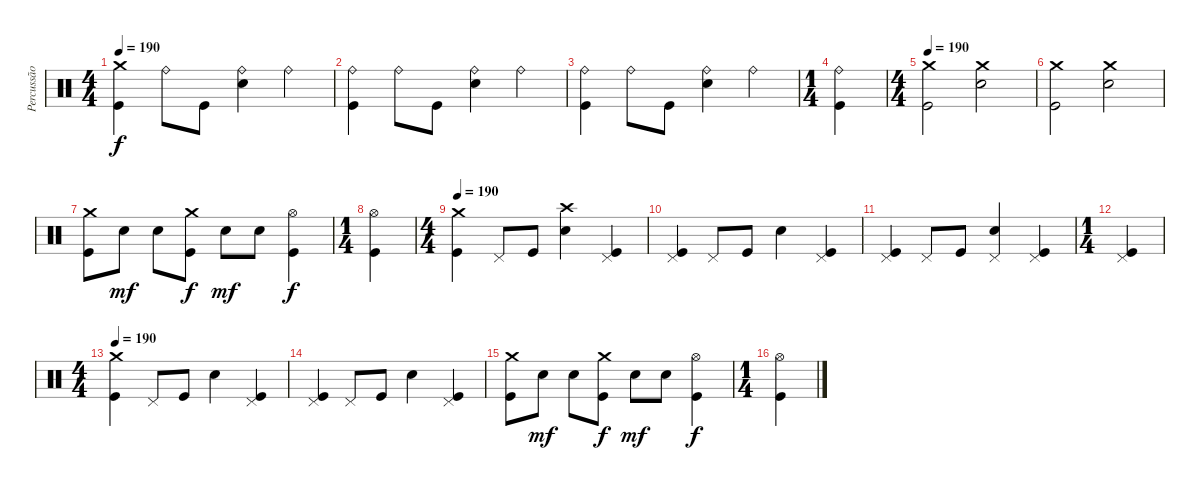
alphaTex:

\track ("Percussão" "Percussão") {instrument percussion}
\staff {score}
\articulation defaults
\ts (4 4)
\tempo 190
\clef neutral
\ks c
("Kick (hit)" "Crash medium (hit)").4{dy f} "Ride (bell)".8 "Kick (hit)".8 ("Electric Snare (hit)" "Ride (bell)").4 "Ride (bell)".4 |
("Kick (hit)" "Ride (bell)").4 "Ride (bell)".8 "Kick (hit)".8 ("Electric Snare (hit)" "Ride (bell)").4 "Ride (bell)".4 |
("Kick (hit)" "Ride (bell)").4 "Ride (bell)".8 "Kick (hit)".8 ("Electric Snare (hit)" "Ride (bell)").4 "Ride (bell)".4 |
\ts (1 4)
("Kick (hit)" "Ride (bell)").4 |
\ts (4 4)
\tempo 190
("Kick (hit)" "Crash medium (hit)").2 ("Electric Snare (hit)" "Crash medium (hit)").2 |
("Kick (hit)" "Crash medium (hit)").2 ("Electric Snare (hit)" "Crash medium (hit)").2 |
("Kick (hit)" "Crash medium (hit)").8 "Electric Snare (hit)".8{dy mf} "Electric Snare (hit)".8 ("Kick (hit)" "Crash medium (hit)").8{dy f} "Electric Snare (hit)".8{dy mf} "Electric Snare (hit)".8 ("Kick (hit)" "Hi-Hat (open)").4{dy f} |
\ts (1 4)
("Kick (hit)" "Hi-Hat (open)").4 |
\ts (4 4)
\tempo 190
("Kick (hit)" "Crash medium (hit)").4 "Pedal Hi-Hat (hit)".8 "Kick (hit)".8 ("Electric Snare (hit)" "Crash high (hit)").4 ("Kick (hit)" "Pedal Hi-Hat (hit)").4 |
("Kick (hit)" "Pedal Hi-Hat (hit)").4 "Pedal Hi-Hat (hit)".8 "Kick (hit)".8 "Electric Snare (hit)".4 ("Kick (hit)" "Pedal Hi-Hat (hit)").4 |
("Kick (hit)" "Pedal Hi-Hat (hit)").4 "Pedal Hi-Hat (hit)".8 "Kick (hit)".8 ("Electric Snare (hit)" "Pedal Hi-Hat (hit)").4 ("Kick (hit)" "Pedal Hi-Hat (hit)").4 |
\ts (1 4)
("Kick (hit)" "Pedal Hi-Hat (hit)").4 |
\ts (4 4)
\tempo 190
("Kick (hit)" "Crash medium (hit)").4 "Pedal Hi-Hat (hit)".8 "Kick (hit)".8 "Electric Snare (hit)".4 ("Kick (hit)" "Pedal Hi-Hat (hit)").4 |
("Kick (hit)" "Pedal Hi-Hat (hit)").4 "Pedal Hi-Hat (hit)".8 "Kick (hit)".8 "Electric Snare (hit)".4 ("Kick (hit)" "Pedal Hi-Hat (hit)").4 |
("Kick (hit)" "Crash medium (hit)").8 "Electric Snare (hit)".8{dy mf} "Electric Snare (hit)".8 ("Kick (hit)" "Crash medium (hit)").8{dy f} "Electric Snare (hit)".8{dy mf} "Electric Snare (hit)".8 ("Kick (hit)" "Hi-Hat (open)").4{dy f} |
\ts (1 4)
("Kick (hit)" "Hi-Hat (open)").4
